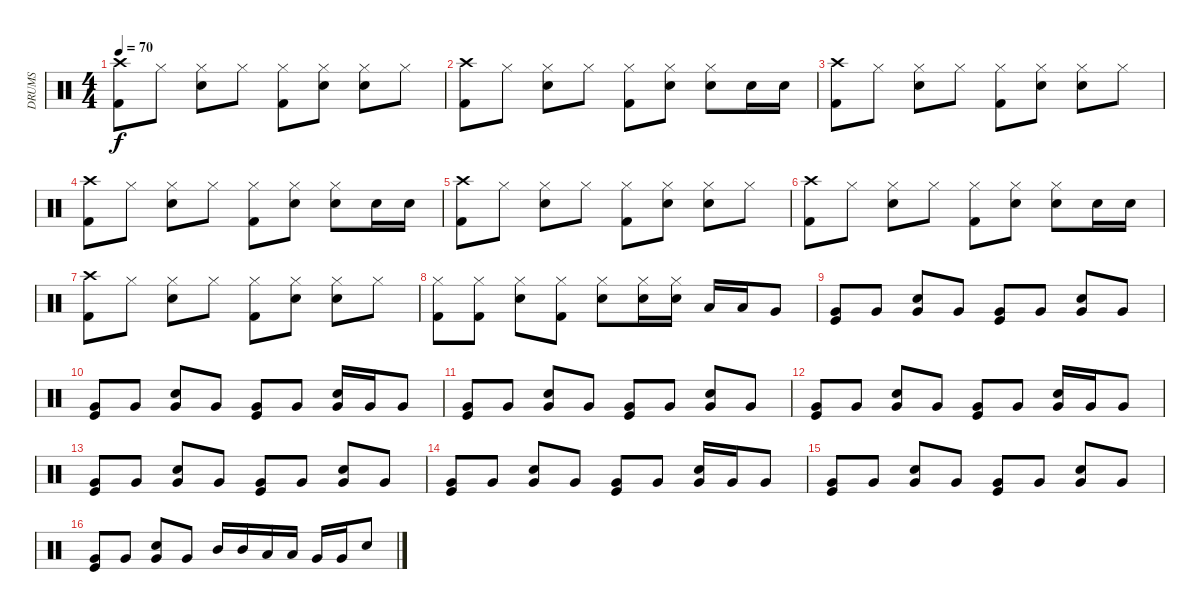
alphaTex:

\track ("DRUMS" "DRUMS") {instrument percussion}
\staff {score}
\articulation defaults
\ts (4 4)
\tempo 70
\clef neutral
\ks c
("Crash high (hit)" "Kick (hit) 2").8{dy f} "Hi-Hat (closed)".8 ("Hi-Hat (closed)" "Snare (hit) 2").8 "Hi-Hat (closed)".8 ("Hi-Hat (closed)" "Kick (hit) 2").8 ("Hi-Hat (closed)" "Snare (hit) 2").8 ("Hi-Hat (closed)" "Snare (hit) 2").8 "Hi-Hat (closed)".8 |
("Crash high (hit)" "Kick (hit) 2").8 "Hi-Hat (closed)".8 ("Hi-Hat (closed)" "Snare (hit) 2").8 "Hi-Hat (closed)".8 ("Hi-Hat (closed)" "Kick (hit) 2").8 ("Hi-Hat (closed)" "Snare (hit) 2").8 ("Hi-Hat (closed)" "Snare (hit) 2").8 "Snare (hit) 2".16 "Snare (hit) 2".16 |
("Crash high (hit)" "Kick (hit) 2").8 "Hi-Hat (closed)".8 ("Hi-Hat (closed)" "Snare (hit) 2").8 "Hi-Hat (closed)".8 ("Hi-Hat (closed)" "Kick (hit) 2").8 ("Hi-Hat (closed)" "Snare (hit) 2").8 ("Hi-Hat (closed)" "Snare (hit) 2").8 "Hi-Hat (closed)".8 |
("Crash high (hit)" "Kick (hit) 2").8 "Hi-Hat (closed)".8 ("Hi-Hat (closed)" "Snare (hit) 2").8 "Hi-Hat (closed)".8 ("Hi-Hat (closed)" "Kick (hit) 2").8 ("Hi-Hat (closed)" "Snare (hit) 2").8 ("Hi-Hat (closed)" "Snare (hit) 2").8 "Snare (hit) 2".16 "Snare (hit) 2".16 |
("Crash high (hit)" "Kick (hit) 2").8 "Hi-Hat (closed)".8 ("Hi-Hat (closed)" "Snare (hit) 2").8 "Hi-Hat (closed)".8 ("Hi-Hat (closed)" "Kick (hit) 2").8 ("Hi-Hat (closed)" "Snare (hit) 2").8 ("Hi-Hat (closed)" "Snare (hit) 2").8 "Hi-Hat (closed)".8 |
("Crash high (hit)" "Kick (hit) 2").8 "Hi-Hat (closed)".8 ("Hi-Hat (closed)" "Snare (hit) 2").8 "Hi-Hat (closed)".8 ("Hi-Hat (closed)" "Kick (hit) 2").8 ("Hi-Hat (closed)" "Snare (hit) 2").8 ("Hi-Hat (closed)" "Snare (hit) 2").8 "Snare (hit) 2".16 "Snare (hit) 2".16 |
("Crash high (hit)" "Kick (hit) 2").8 "Hi-Hat (closed)".8 ("Hi-Hat (closed)" "Snare (hit) 2").8 "Hi-Hat (closed)".8 ("Hi-Hat (closed)" "Kick (hit) 2").8 ("Hi-Hat (closed)" "Snare (hit) 2").8 ("Hi-Hat (closed)" "Snare (hit) 2").8 "Hi-Hat (closed)".8 |
("Hi-Hat (closed)" "Kick (hit) 2").8 ("Hi-Hat (closed)" "Kick (hit) 2").8 ("Hi-Hat (closed)" "Snare (hit) 2").8 ("Hi-Hat (closed)" "Kick (hit) 2").8 ("Hi-Hat (closed)" "Snare (hit) 2").8 ("Hi-Hat (closed)" "Snare (hit) 2").16 ("Hi-Hat (closed)" "Snare (hit) 2").16 "Low Tom (hit)".16 "Low Tom (hit)".16 "Very Low Tom (hit)".8 |
("Kick (hit)" "Very Low Tom (hit)").8 "Very Low Tom (hit)".8 ("Snare (hit) 2" "Very Low Tom (hit)").8 "Very Low Tom (hit)".8 ("Kick (hit)" "Very Low Tom (hit)").8 "Very Low Tom (hit)".8 ("Snare (hit) 2" "Very Low Tom (hit)").8 "Very Low Tom (hit)".8 |
("Kick (hit)" "Very Low Tom (hit)").8 "Very Low Tom (hit)".8 ("Snare (hit) 2" "Very Low Tom (hit)").8 "Very Low Tom (hit)".8 ("Kick (hit)" "Very Low Tom (hit)").8 "Very Low Tom (hit)".8 ("Snare (hit) 2" "Very Low Tom (hit)").16 "Very Low Tom (hit)".16 "Very Low Tom (hit)".8 |
("Kick (hit)" "Very Low Tom (hit)").8 "Very Low Tom (hit)".8 ("Snare (hit) 2" "Very Low Tom (hit)").8 "Very Low Tom (hit)".8 ("Kick (hit)" "Very Low Tom (hit)").8 "Very Low Tom (hit)".8 ("Snare (hit) 2" "Very Low Tom (hit)").8 "Very Low Tom (hit)".8 |
("Kick (hit)" "Very Low Tom (hit)").8 "Very Low Tom (hit)".8 ("Snare (hit) 2" "Very Low Tom (hit)").8 "Very Low Tom (hit)".8 ("Kick (hit)" "Very Low Tom (hit)").8 "Very Low Tom (hit)".8 ("Snare (hit) 2" "Very Low Tom (hit)").16 "Very Low Tom (hit)".16 "Very Low Tom (hit)".8 |
("Kick (hit)" "Very Low Tom (hit)").8 "Very Low Tom (hit)".8 ("Snare (hit) 2" "Very Low Tom (hit)").8 "Very Low Tom (hit)".8 ("Kick (hit)" "Very Low Tom (hit)").8 "Very Low Tom (hit)".8 ("Snare (hit) 2" "Very Low Tom (hit)").8 "Very Low Tom (hit)".8 |
("Kick (hit)" "Very Low Tom (hit)").8 "Very Low Tom (hit)".8 ("Snare (hit) 2" "Very Low Tom (hit)").8 "Very Low Tom (hit)".8 ("Kick (hit)" "Very Low Tom (hit)").8 "Very Low Tom (hit)".8 ("Snare (hit) 2" "Very Low Tom (hit)").16 "Very Low Tom (hit)".16 "Very Low Tom (hit)".8 |
("Kick (hit)" "Very Low Tom (hit)").8 "Very Low Tom (hit)".8 ("Snare (hit) 2" "Very Low Tom (hit)").8 "Very Low Tom (hit)".8 ("Kick (hit)" "Very Low Tom (hit)").8 "Very Low Tom (hit)".8 ("Snare (hit) 2" "Very Low Tom (hit)").8 "Very Low Tom (hit)".8 |
("Kick (hit)" "Very Low Tom (hit)").8 "Very Low Tom (hit)".8 ("Snare (hit) 2" "Very Low Tom (hit)").8 "Very Low Tom (hit)".8 "Mid Tom (hit)".16 "Mid Tom (hit)".16 "Low Tom (hit)".16 "Low Tom (hit)".16 "Very Low Tom (hit)".16 "Very Low Tom (hit)".16 "Snare (hit) 2".8
